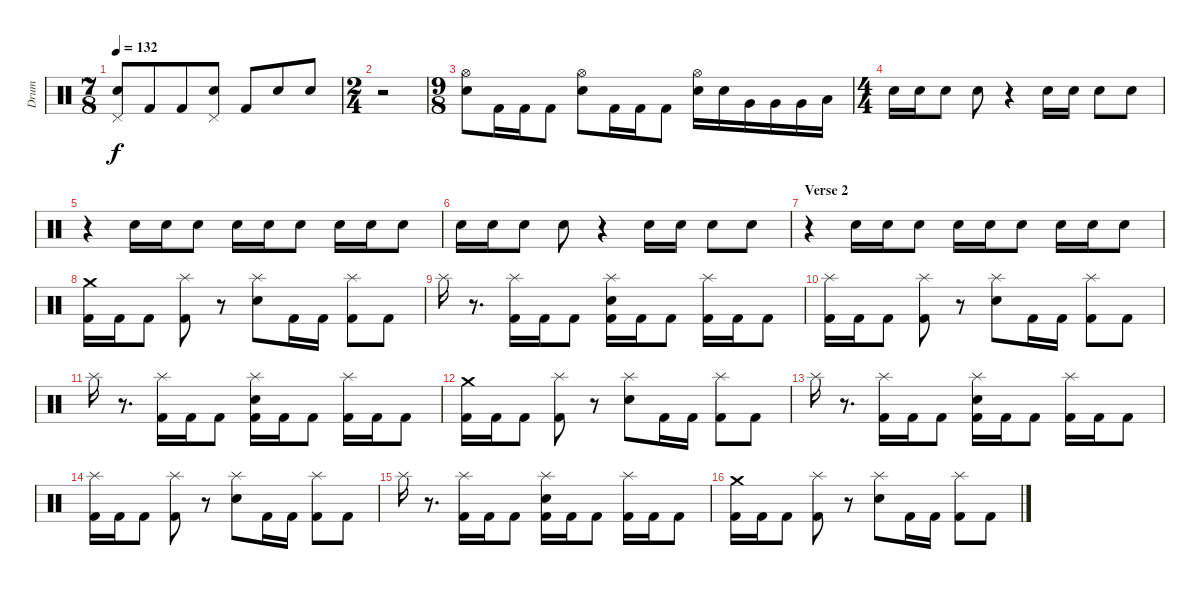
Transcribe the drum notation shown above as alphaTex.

\track (" Drum" " Drum") {instrument percussion}
\staff {score}
\articulation defaults
\ts (7 8)
\tempo 132
\clef neutral
\ks c
("Pedal Hi-Hat (hit)" "Electric Snare (hit)").8{dy f} "Kick (hit) 2".8 "Kick (hit) 2".8 ("Pedal Hi-Hat (hit)" "Electric Snare (hit)").8 "Kick (hit) 2".8 "Electric Snare (hit)".8 "Electric Snare (hit)".8 |
\ts (2 4)
r.2 |
\ts (9 8)
("Hi-Hat (open)" "Electric Snare (hit)").8 "Kick (hit) 2".16 "Kick (hit) 2".16 "Kick (hit) 2".8 ("Hi-Hat (open)" "Electric Snare (hit)").8 "Kick (hit) 2".16 "Kick (hit) 2".16 "Kick (hit) 2".8 ("Hi-Hat (open)" "Electric Snare (hit)").16 "Electric Snare (hit)".16 "Very Low Tom (hit)".16 "Very Low Tom (hit)".16 "Very Low Tom (hit)".16 "Low Floor Tom (hit)".16 |
\ts (4 4)
"Electric Snare (hit)".16 "Electric Snare (hit)".16 "Electric Snare (hit)".8 "Electric Snare (hit)".8 r.4 "Electric Snare (hit)".16 "Electric Snare (hit)".16 "Electric Snare (hit)".8 "Electric Snare (hit)".8 |
r.4 "Electric Snare (hit)".16 "Electric Snare (hit)".16 "Electric Snare (hit)".8 "Electric Snare (hit)".16 "Electric Snare (hit)".16 "Electric Snare (hit)".8 "Electric Snare (hit)".16 "Electric Snare (hit)".16 "Electric Snare (hit)".8 |
"Electric Snare (hit)".16 "Electric Snare (hit)".16 "Electric Snare (hit)".8 "Electric Snare (hit)".8 r.4 "Electric Snare (hit)".16 "Electric Snare (hit)".16 "Electric Snare (hit)".8 "Electric Snare (hit)".8 |
\section ("" "Verse 2")
r.4 "Electric Snare (hit)".16 "Electric Snare (hit)".16 "Electric Snare (hit)".8 "Electric Snare (hit)".16 "Electric Snare (hit)".16 "Electric Snare (hit)".8 "Electric Snare (hit)".16 "Electric Snare (hit)".16 "Electric Snare (hit)".8 |
("Crash medium (hit)" "Kick (hit) 2").16 "Kick (hit) 2".16 "Kick (hit) 2".8 ("Splash (hit)" "Kick (hit) 2").8 r.8 ("Splash (hit)" "Electric Snare (hit)").8 "Kick (hit) 2".16 "Kick (hit) 2".16 ("Splash (hit)" "Kick (hit) 2").8 "Kick (hit) 2".8 |
"Splash (hit)".16 r.8{d} ("Splash (hit)" "Kick (hit) 2").16 "Kick (hit) 2".16 "Kick (hit) 2".8 ("Splash (hit)" "Electric Snare (hit)" "Kick (hit) 2").16 "Kick (hit) 2".16 "Kick (hit) 2".8 ("Splash (hit)" "Kick (hit) 2").16 "Kick (hit) 2".16 "Kick (hit) 2".8 |
("Splash (hit)" "Kick (hit) 2").16 "Kick (hit) 2".16 "Kick (hit) 2".8 ("Splash (hit)" "Kick (hit) 2").8 r.8 ("Splash (hit)" "Electric Snare (hit)").8 "Kick (hit) 2".16 "Kick (hit) 2".16 ("Splash (hit)" "Kick (hit) 2").8 "Kick (hit) 2".8 |
"Splash (hit)".16 r.8{d} ("Splash (hit)" "Kick (hit) 2").16 "Kick (hit) 2".16 "Kick (hit) 2".8 ("Splash (hit)" "Electric Snare (hit)" "Kick (hit) 2").16 "Kick (hit) 2".16 "Kick (hit) 2".8 ("Splash (hit)" "Kick (hit) 2").16 "Kick (hit) 2".16 "Kick (hit) 2".8 |
("Crash medium (hit)" "Kick (hit) 2").16 "Kick (hit) 2".16 "Kick (hit) 2".8 ("Splash (hit)" "Kick (hit) 2").8 r.8 ("Splash (hit)" "Electric Snare (hit)").8 "Kick (hit) 2".16 "Kick (hit) 2".16 ("Splash (hit)" "Kick (hit) 2").8 "Kick (hit) 2".8 |
"Splash (hit)".16 r.8{d} ("Splash (hit)" "Kick (hit) 2").16 "Kick (hit) 2".16 "Kick (hit) 2".8 ("Splash (hit)" "Electric Snare (hit)" "Kick (hit) 2").16 "Kick (hit) 2".16 "Kick (hit) 2".8 ("Splash (hit)" "Kick (hit) 2").16 "Kick (hit) 2".16 "Kick (hit) 2".8 |
("Splash (hit)" "Kick (hit) 2").16 "Kick (hit) 2".16 "Kick (hit) 2".8 ("Splash (hit)" "Kick (hit) 2").8 r.8 ("Splash (hit)" "Electric Snare (hit)").8 "Kick (hit) 2".16 "Kick (hit) 2".16 ("Splash (hit)" "Kick (hit) 2").8 "Kick (hit) 2".8 |
"Splash (hit)".16 r.8{d} ("Splash (hit)" "Kick (hit) 2").16 "Kick (hit) 2".16 "Kick (hit) 2".8 ("Splash (hit)" "Electric Snare (hit)" "Kick (hit) 2").16 "Kick (hit) 2".16 "Kick (hit) 2".8 ("Splash (hit)" "Kick (hit) 2").16 "Kick (hit) 2".16 "Kick (hit) 2".8 |
("Crash medium (hit)" "Kick (hit) 2").16 "Kick (hit) 2".16 "Kick (hit) 2".8 ("Splash (hit)" "Kick (hit) 2").8 r.8 ("Splash (hit)" "Electric Snare (hit)").8 "Kick (hit) 2".16 "Kick (hit) 2".16 ("Splash (hit)" "Kick (hit) 2").8 "Kick (hit) 2".8
